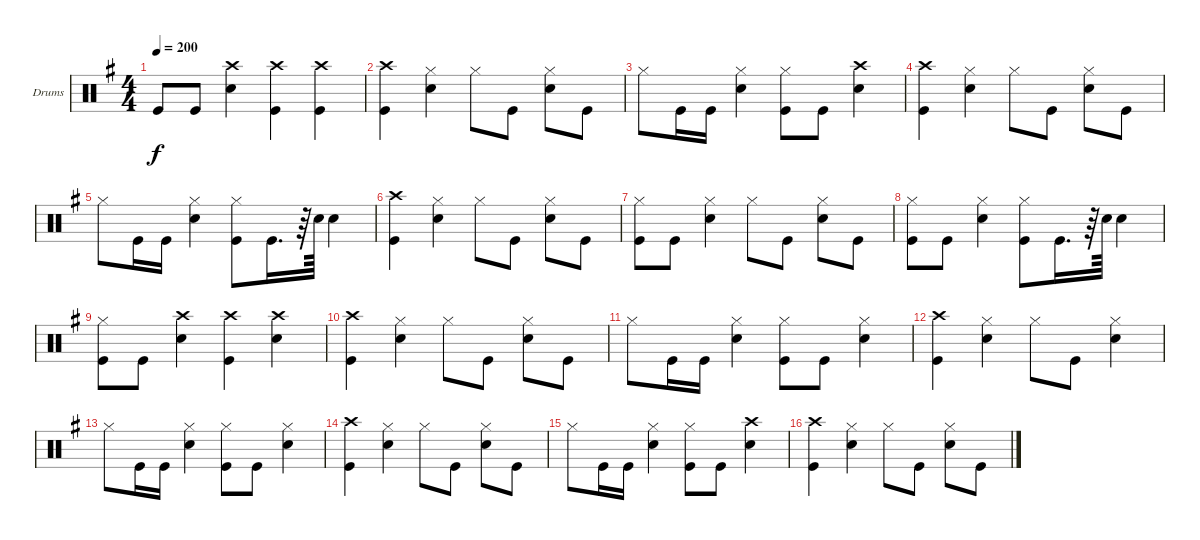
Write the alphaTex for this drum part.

\bracketExtendMode groupsimilarinstruments
\firstSystemTrackNameOrientation horizontal
\otherSystemsTrackNameOrientation horizontal
\track ("Drumkit" "Drums") {instrument percussion}
\staff {score}
\articulation defaults
\ts (4 4)
\tempo 200
\clef neutral
\ks g "Kick (hit)".8{dy f} "Kick (hit)".8
("Crash high (hit)" "Snare (hit) 2").4 ("Crash high (hit)" "Kick (hit)").4 ("Crash high (hit)" "Kick (hit)").4 |
("Kick (hit)" "Crash high (hit)").4 ("Hi-Hat (closed)" "Snare (hit) 2").4 "Hi-Hat (closed)".8 "Kick (hit)".8 ("Snare (hit) 2" "Hi-Hat (closed)").8 "Kick (hit)".8 |
"Hi-Hat (closed)".8 "Kick (hit)".16 "Kick (hit)".16 ("Snare (hit) 2" "Hi-Hat (closed)").4 ("Kick (hit)" "Hi-Hat (closed)").8 "Kick (hit)".8 ("Crash high (hit)" "Snare (hit) 2").4 |
("Kick (hit)" "Crash high (hit)").4 ("Hi-Hat (closed)" "Snare (hit) 2").4 "Hi-Hat (closed)".8 "Kick (hit)".8 ("Snare (hit) 2" "Hi-Hat (closed)").8 "Kick (hit)".8 |
"Hi-Hat (closed)".8 "Kick (hit)".16 "Kick (hit)".16 ("Snare (hit) 2" "Hi-Hat (closed)").4 ("Kick (hit)" "Hi-Hat (closed)").8 "Kick (hit)".16{d} r.64 "Snare (hit) 2".64 "Snare (hit) 2".4 |
("Kick (hit)" "Crash high (hit)").4 ("Snare (hit) 2" "Hi-Hat (closed)").4 "Hi-Hat (closed)".8 "Kick (hit)".8 ("Snare (hit) 2" "Hi-Hat (closed)").8 "Kick (hit)".8 |
("Kick (hit)" "Hi-Hat (closed)").8 "Kick (hit)".8 ("Snare (hit) 2" "Hi-Hat (closed)").4 "Hi-Hat (closed)".8 "Kick (hit)".8 ("Snare (hit) 2" "Hi-Hat (closed)").8 "Kick (hit)".8 |
("Hi-Hat (closed)" "Kick (hit)").8 "Kick (hit)".8 ("Snare (hit) 2" "Hi-Hat (closed)").4 ("Hi-Hat (closed)" "Kick (hit)").8 "Kick (hit)".16{d} r.64 "Snare (hit) 2".64 "Snare (hit) 2".4 |
("Kick (hit)" "Hi-Hat (closed)").8 "Kick (hit)".8 ("Crash high (hit)" "Snare (hit) 2").4 ("Kick (hit)" "Crash high (hit)").4 ("Snare (hit) 2" "Crash high (hit)").4 |
("Kick (hit)" "Crash high (hit)").4 ("Snare (hit) 2" "Hi-Hat (closed)").4 "Hi-Hat (closed)".8 "Kick (hit)".8 ("Snare (hit) 2" "Hi-Hat (closed)").8 "Kick (hit)".8 |
"Hi-Hat (closed)".8 "Kick (hit)".16 "Kick (hit)".16 ("Snare (hit) 2" "Hi-Hat (closed)").4 ("Kick (hit)" "Hi-Hat (closed)").8 "Kick (hit)".8 ("Snare (hit) 2" "Hi-Hat (closed)").4 |
("Kick (hit)" "Crash high (hit)").4 ("Hi-Hat (closed)" "Snare (hit) 2").4 "Hi-Hat (closed)".8 "Kick (hit)".8 ("Snare (hit) 2" "Hi-Hat (closed)").4 |
"Hi-Hat (closed)".8 "Kick (hit)".16 "Kick (hit)".16 ("Snare (hit) 2" "Hi-Hat (closed)").4 ("Kick (hit)" "Hi-Hat (closed)").8 "Kick (hit)".8 ("Hi-Hat (closed)" "Snare (hit) 2").4 |
("Kick (hit)" "Crash high (hit)").4 ("Hi-Hat (closed)" "Snare (hit) 2").4 "Hi-Hat (closed)".8 "Kick (hit)".8 ("Snare (hit) 2" "Hi-Hat (closed)").8 "Kick (hit)".8 |
"Hi-Hat (closed)".8 "Kick (hit)".16 "Kick (hit)".16 ("Snare (hit) 2" "Hi-Hat (closed)").4 ("Kick (hit)" "Hi-Hat (closed)").8 "Kick (hit)".8 ("Crash high (hit)" "Snare (hit) 2").4 |
("Kick (hit)" "Crash high (hit)").4 ("Hi-Hat (closed)" "Snare (hit) 2").4 "Hi-Hat (closed)".8 "Kick (hit)".8 ("Snare (hit) 2" "Hi-Hat (closed)").8 "Kick (hit)".8
